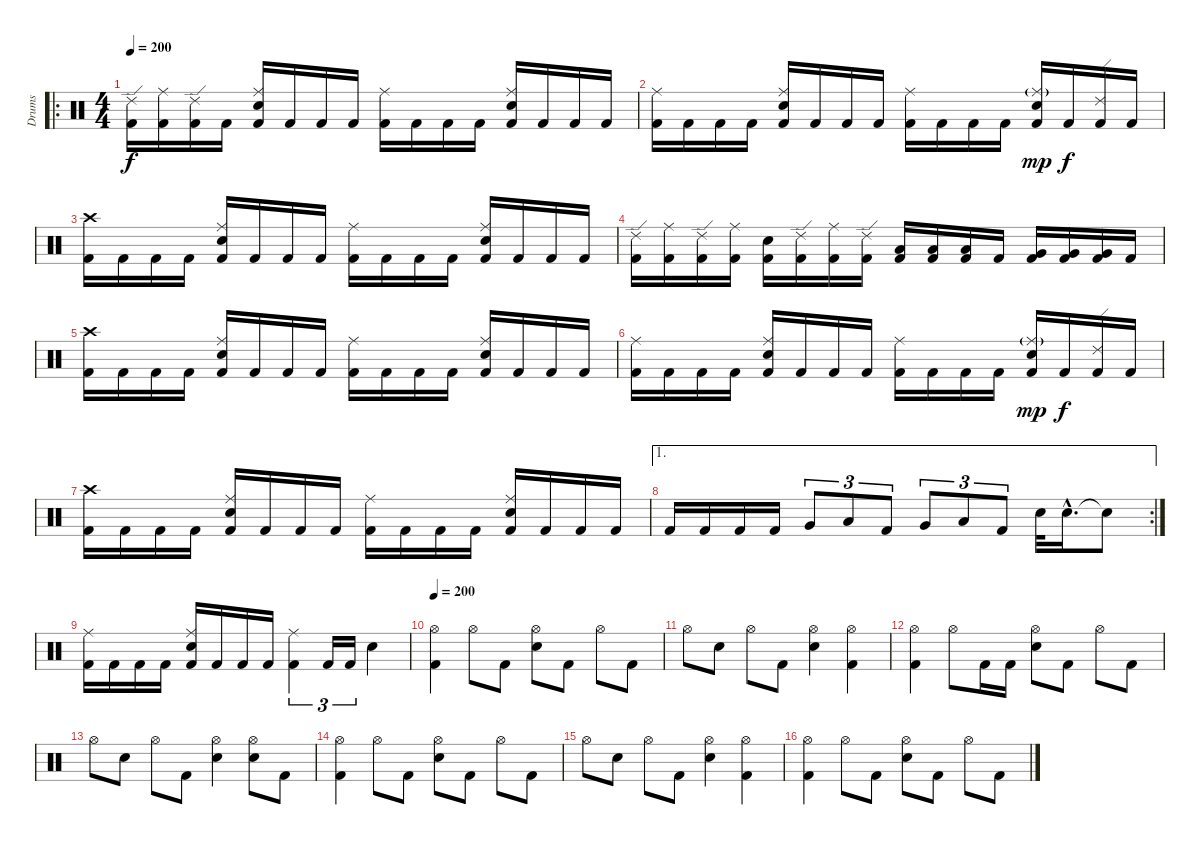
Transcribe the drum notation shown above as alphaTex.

\track ("Drums" "Drums") {instrument percussion}
\staff {score}
\articulation defaults
\ro
\ts (4 4)
\tempo 200
\clef neutral
\ks c
("Ride (edge) 2" "Kick (hit) 2").16{dy f} ("Ride (middle)" "Kick (hit) 2").16 ("Ride (edge) 2" "Kick (hit) 2").16 "Kick (hit) 2".16 ("Ride (middle)" "Electric Snare (hit)" "Kick (hit) 2").16 "Kick (hit) 2".16 "Kick (hit) 2".16 "Kick (hit) 2".16 ("Ride (middle)" "Kick (hit) 2").16 "Kick (hit) 2".16 "Kick (hit) 2".16 "Kick (hit) 2".16 ("Ride (middle)" "Electric Snare (hit)" "Kick (hit) 2").16 "Kick (hit) 2".16 "Kick (hit) 2".16 "Kick (hit) 2".16 |
("Ride (middle)" "Kick (hit) 2").16 "Kick (hit) 2".16 "Kick (hit) 2".16 "Kick (hit) 2".16 ("Ride (middle)" "Electric Snare (hit)" "Kick (hit) 2").16 "Kick (hit) 2".16 "Kick (hit) 2".16 "Kick (hit) 2".16 ("Ride (middle)" "Kick (hit) 2").16 "Kick (hit) 2".16 "Kick (hit) 2".16 "Kick (hit) 2".16 ("Ride (middle)"{g} "Electric Snare (hit)" "Kick (hit) 2").16{dy mp} "Kick (hit) 2".16{dy f} ("Ride (edge) 2" "Kick (hit) 2").16 "Kick (hit) 2".16 |
("Crash high (hit)" "Kick (hit) 2").16 "Kick (hit) 2".16 "Kick (hit) 2".16 "Kick (hit) 2".16 ("Ride (middle)" "Electric Snare (hit)" "Kick (hit) 2").16 "Kick (hit) 2".16 "Kick (hit) 2".16 "Kick (hit) 2".16 ("Ride (middle)" "Kick (hit) 2").16 "Kick (hit) 2".16 "Kick (hit) 2".16 "Kick (hit) 2".16 ("Ride (middle)" "Electric Snare (hit)" "Kick (hit) 2").16 "Kick (hit) 2".16 "Kick (hit) 2".16 "Kick (hit) 2".16 |
("Ride (edge) 2" "Kick (hit) 2").16 ("Ride (middle)" "Kick (hit) 2").16 ("Ride (edge) 2" "Kick (hit) 2").16 ("Ride (middle)" "Kick (hit) 2").16 ("Electric Snare (hit)" "Kick (hit) 2").16 ("Ride (edge) 2" "Kick (hit) 2").16 ("Ride (middle)" "Kick (hit) 2").16 ("Ride (edge) 2" "Kick (hit) 2").16 ("Low Tom (hit)" "Kick (hit) 2").16 ("Low Tom (hit)" "Kick (hit) 2").16 ("Low Tom (hit)" "Kick (hit) 2").16 "Kick (hit) 2".16 ("Very Low Tom (hit)" "Kick (hit) 2").16 ("Very Low Tom (hit)" "Kick (hit) 2").16 ("Very Low Tom (hit)" "Kick (hit) 2").16 "Kick (hit) 2".16 |
("Crash high (hit)" "Kick (hit) 2").16 "Kick (hit) 2".16 "Kick (hit) 2".16 "Kick (hit) 2".16 ("Ride (middle)" "Electric Snare (hit)" "Kick (hit) 2").16 "Kick (hit) 2".16 "Kick (hit) 2".16 "Kick (hit) 2".16 ("Ride (middle)" "Kick (hit) 2").16 "Kick (hit) 2".16 "Kick (hit) 2".16 "Kick (hit) 2".16 ("Ride (middle)" "Electric Snare (hit)" "Kick (hit) 2").16 "Kick (hit) 2".16 "Kick (hit) 2".16 "Kick (hit) 2".16 |
("Ride (middle)" "Kick (hit) 2").16 "Kick (hit) 2".16 "Kick (hit) 2".16 "Kick (hit) 2".16 ("Ride (middle)" "Electric Snare (hit)" "Kick (hit) 2").16 "Kick (hit) 2".16 "Kick (hit) 2".16 "Kick (hit) 2".16 ("Ride (middle)" "Kick (hit) 2").16 "Kick (hit) 2".16 "Kick (hit) 2".16 "Kick (hit) 2".16 ("Ride (middle)"{g} "Electric Snare (hit)" "Kick (hit) 2").16{dy mp} "Kick (hit) 2".16{dy f} ("Ride (edge) 2" "Kick (hit) 2").16 "Kick (hit) 2".16 |
("Crash high (hit)" "Kick (hit) 2").16 "Kick (hit) 2".16 "Kick (hit) 2".16 "Kick (hit) 2".16 ("Ride (middle)" "Electric Snare (hit)" "Kick (hit) 2").16 "Kick (hit) 2".16 "Kick (hit) 2".16 "Kick (hit) 2".16 ("Ride (middle)" "Kick (hit) 2").16 "Kick (hit) 2".16 "Kick (hit) 2".16 "Kick (hit) 2".16 ("Ride (middle)" "Electric Snare (hit)" "Kick (hit) 2").16 "Kick (hit) 2".16 "Kick (hit) 2".16 "Kick (hit) 2".16 |
\ae 1
\rc 2 "Kick (hit) 2".16 "Kick (hit) 2".16 "Kick (hit) 2".16 "Kick (hit) 2".16 "Very Low Tom (hit)".8{tu (3 2)} "Low Floor Tom (hit)".8{tu (3 2)} "Kick (hit) 2".8{tu (3 2)} "Very Low Tom (hit)".8{tu (3 2)} "Low Floor Tom (hit)".8{tu (3 2)} "Kick (hit) 2".8{tu (3 2)} "Electric Snare (hit)".32 "Electric Snare (hit)"{hac}.16{d} "Snare (hit)"{t}.8
|
("Ride (middle)" "Kick (hit) 2").16 "Kick (hit) 2".16 "Kick (hit) 2".16 "Kick (hit) 2".16 ("Ride (middle)" "Electric Snare (hit)" "Kick (hit) 2").16 "Kick (hit) 2".16 "Kick (hit) 2".16 "Kick (hit) 2".16 ("Ride (middle)" "Kick (hit) 2").4{tu (3 2)} "Kick (hit) 2".16{tu (3 2)} "Kick (hit) 2".16{tu (3 2)} "Electric Snare (hit)".4 |
\tempo 200
("Hi-Hat (open)" "Kick (hit) 2").4 "Hi-Hat (open)".8 "Kick (hit) 2".8 ("Hi-Hat (open)" "Electric Snare (hit)").8 "Kick (hit) 2".8 "Hi-Hat (open)".8 "Kick (hit) 2".8 |
"Hi-Hat (open)".8 "Electric Snare (hit)".8 "Hi-Hat (open)".8 "Kick (hit) 2".8 ("Hi-Hat (open)" "Electric Snare (hit)").4 ("Hi-Hat (open)" "Kick (hit) 2").4 |
("Hi-Hat (open)" "Kick (hit) 2").4 "Hi-Hat (open)".8 "Kick (hit) 2".16 "Kick (hit) 2".16 ("Hi-Hat (open)" "Electric Snare (hit)").8 "Kick (hit) 2".8 "Hi-Hat (open)".8 "Kick (hit) 2".8 |
"Hi-Hat (open)".8 "Electric Snare (hit)".8 "Hi-Hat (open)".8 "Kick (hit) 2".8 ("Hi-Hat (open)" "Electric Snare (hit)").4 ("Hi-Hat (open)" "Electric Snare (hit)").8 "Kick (hit) 2".8 |
("Hi-Hat (open)" "Kick (hit) 2").4 "Hi-Hat (open)".8 "Kick (hit) 2".8 ("Hi-Hat (open)" "Electric Snare (hit)").8 "Kick (hit) 2".8 "Hi-Hat (open)".8 "Kick (hit) 2".8 |
"Hi-Hat (open)".8 "Electric Snare (hit)".8 "Hi-Hat (open)".8 "Kick (hit) 2".8 ("Hi-Hat (open)" "Electric Snare (hit)").4 ("Hi-Hat (open)" "Kick (hit) 2").4 |
("Hi-Hat (open)" "Kick (hit) 2").4 "Hi-Hat (open)".8 "Kick (hit) 2".8 ("Hi-Hat (open)" "Electric Snare (hit)").8 "Kick (hit) 2".8 "Hi-Hat (open)".8 "Kick (hit) 2".8
